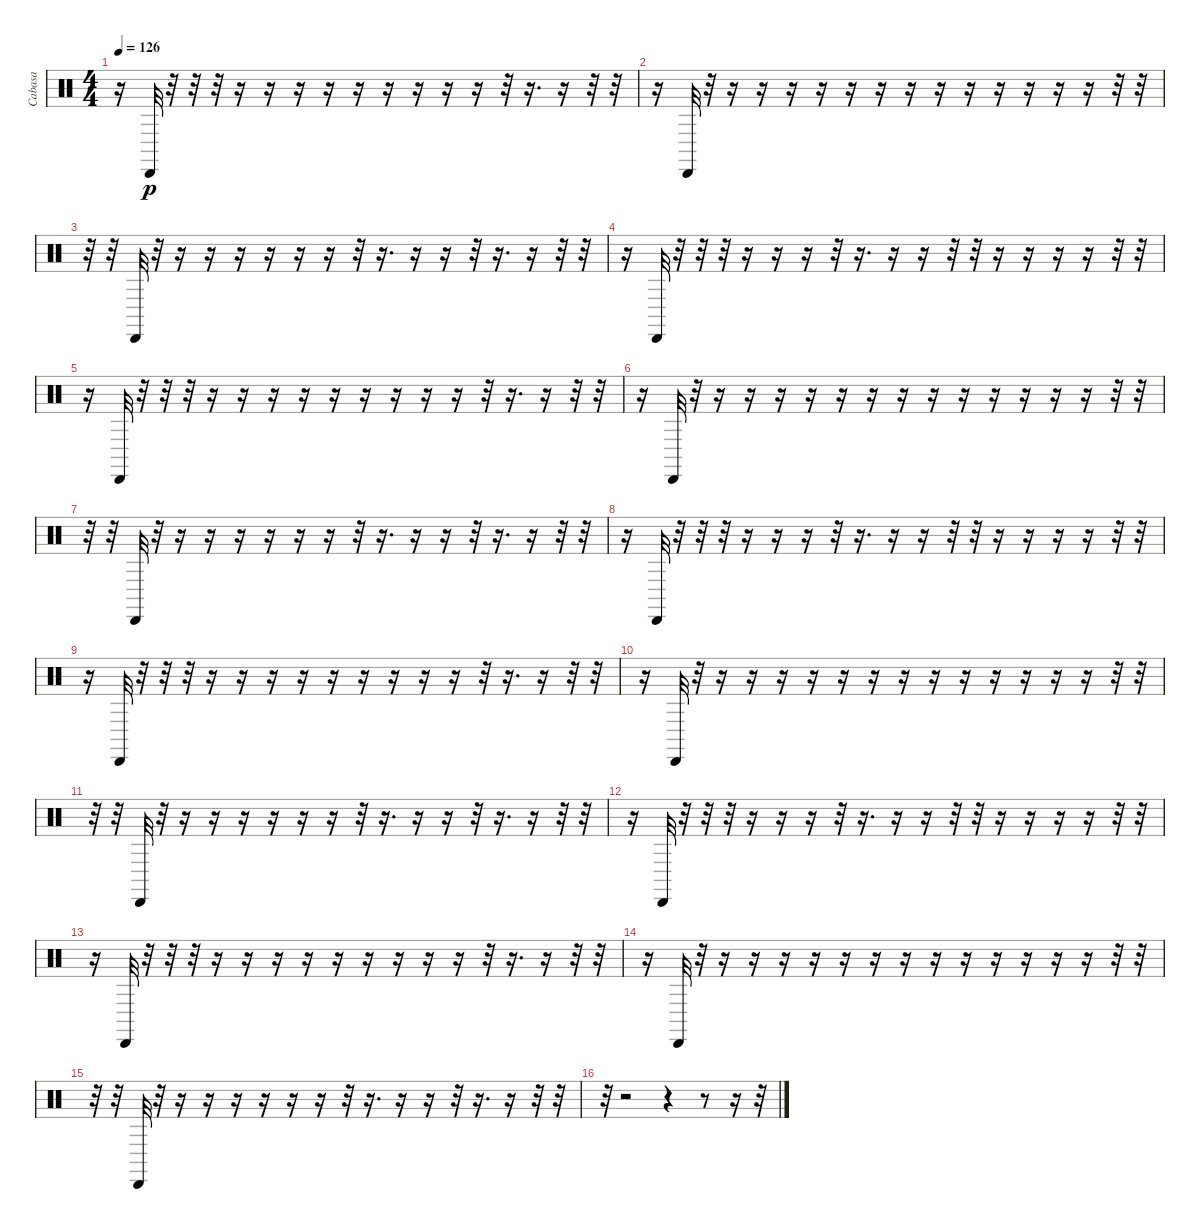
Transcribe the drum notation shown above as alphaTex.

\track ("Cabasa" "Cabasa") {instrument percussion}
\staff {score}
\articulation defaults
\ts (4 4)
\tempo 126
\clef neutral
\ks c
r.16{dy p} "Cabasa (hit)".32 r.32 r.32 r.32 r.16 r.16 r.16 r.16 r.16 r.16 r.16 r.16 r.16 r.32 r.16{d} r.16 r.32 r.32 |
r.16 "Cabasa (hit)".32 r.32 r.16 r.16 r.16 r.16 r.16 r.16 r.16 r.16 r.16 r.16 r.16 r.16 r.16 r.32 r.32 |
r.32 r.32 "Cabasa (hit)".32 r.32 r.16 r.16 r.16 r.16 r.16 r.16 r.32 r.16{d} r.16 r.16 r.32 r.16{d} r.16 r.32 r.32 |
r.16 "Cabasa (hit)".32 r.32 r.32 r.32 r.16 r.16 r.16 r.32 r.16{d} r.16 r.16 r.32 r.32 r.16 r.16 r.16 r.16 r.32 r.32 |
r.16 "Cabasa (hit)".32 r.32 r.32 r.32 r.16 r.16 r.16 r.16 r.16 r.16 r.16 r.16 r.16 r.32 r.16{d} r.16 r.32 r.32 |
r.16 "Cabasa (hit)".32 r.32 r.16 r.16 r.16 r.16 r.16 r.16 r.16 r.16 r.16 r.16 r.16 r.16 r.16 r.32 r.32 |
r.32 r.32 "Cabasa (hit)".32 r.32 r.16 r.16 r.16 r.16 r.16 r.16 r.32 r.16{d} r.16 r.16 r.32 r.16{d} r.16 r.32 r.32 |
r.16 "Cabasa (hit)".32 r.32 r.32 r.32 r.16 r.16 r.16 r.32 r.16{d} r.16 r.16 r.32 r.32 r.16 r.16 r.16 r.16 r.32 r.32 |
r.16 "Cabasa (hit)".32 r.32 r.32 r.32 r.16 r.16 r.16 r.16 r.16 r.16 r.16 r.16 r.16 r.32 r.16{d} r.16 r.32 r.32 |
r.16 "Cabasa (hit)".32 r.32 r.16 r.16 r.16 r.16 r.16 r.16 r.16 r.16 r.16 r.16 r.16 r.16 r.16 r.32 r.32 |
r.32 r.32 "Cabasa (hit)".32 r.32 r.16 r.16 r.16 r.16 r.16 r.16 r.32 r.16{d} r.16 r.16 r.32 r.16{d} r.16 r.32 r.32 |
r.16 "Cabasa (hit)".32 r.32 r.32 r.32 r.16 r.16 r.16 r.32 r.16{d} r.16 r.16 r.32 r.32 r.16 r.16 r.16 r.16 r.32 r.32 |
r.16 "Cabasa (hit)".32 r.32 r.32 r.32 r.16 r.16 r.16 r.16 r.16 r.16 r.16 r.16 r.16 r.32 r.16{d} r.16 r.32 r.32 |
r.16 "Cabasa (hit)".32 r.32 r.16 r.16 r.16 r.16 r.16 r.16 r.16 r.16 r.16 r.16 r.16 r.16 r.16 r.32 r.32 |
r.32 r.32 "Cabasa (hit)".32 r.32 r.16 r.16 r.16 r.16 r.16 r.16 r.32 r.16{d} r.16 r.16 r.32 r.16{d} r.16 r.32 r.32 |
r.32 r.2 r.4 r.8 r.16 r.32
